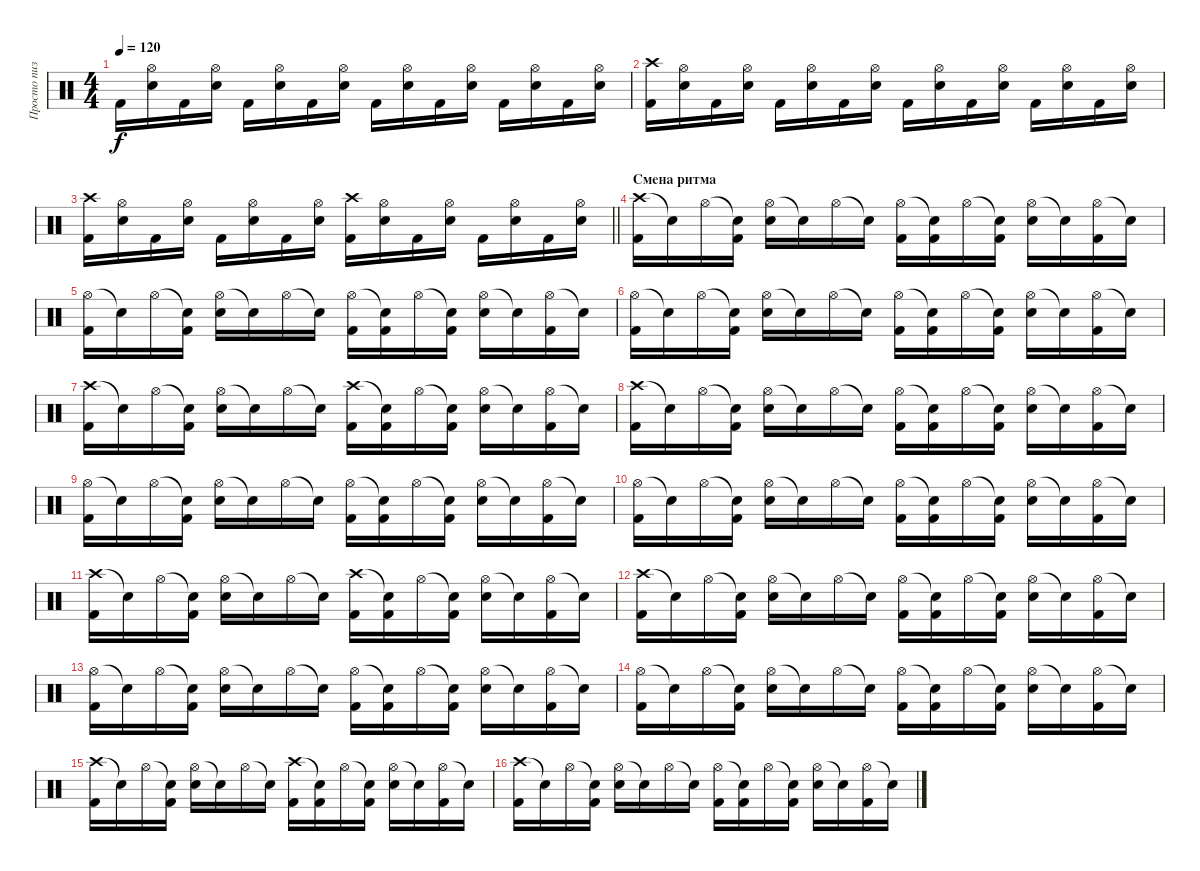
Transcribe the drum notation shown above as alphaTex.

\track ("Просто пиздец какой то" "Просто пиз") {instrument percussion}
\staff {score}
\articulation defaults
\ts (4 4)
\tempo 120
\clef neutral
\ks c "Kick (hit) 2".16{dy f}
("Hi-Hat (open)" "Snare (hit) 2").16 "Kick (hit) 2".16 ("Hi-Hat (open)" "Snare (hit) 2").16 "Kick (hit) 2".16 ("Hi-Hat (open)" "Snare (hit) 2").16 "Kick (hit) 2".16 ("Hi-Hat (open)" "Snare (hit) 2").16 "Kick (hit) 2".16 ("Hi-Hat (open)" "Snare (hit) 2").16 "Kick (hit) 2".16 ("Hi-Hat (open)" "Snare (hit) 2").16 "Kick (hit) 2".16 ("Hi-Hat (open)" "Snare (hit) 2").16 "Kick (hit) 2".16 ("Hi-Hat (open)" "Snare (hit) 2").16 |
("Crash high (hit)" "Kick (hit) 2").16 ("Hi-Hat (open)" "Snare (hit) 2").16 "Kick (hit) 2".16 ("Hi-Hat (open)" "Snare (hit) 2").16 "Kick (hit) 2".16 ("Hi-Hat (open)" "Snare (hit) 2").16 "Kick (hit) 2".16 ("Hi-Hat (open)" "Snare (hit) 2").16 "Kick (hit) 2".16 ("Hi-Hat (open)" "Snare (hit) 2").16 "Kick (hit) 2".16 ("Hi-Hat (open)" "Snare (hit) 2").16 "Kick (hit) 2".16 ("Hi-Hat (open)" "Snare (hit) 2").16 "Kick (hit) 2".16 ("Hi-Hat (open)" "Snare (hit) 2").16 |
\barLineRight lightlight
("Crash high (hit)" "Kick (hit) 2").16 ("Hi-Hat (open)" "Snare (hit) 2").16 "Kick (hit) 2".16 ("Hi-Hat (open)" "Snare (hit) 2").16 "Kick (hit) 2".16 ("Hi-Hat (open)" "Snare (hit) 2").16 "Kick (hit) 2".16 ("Hi-Hat (open)" "Snare (hit) 2").16 ("Crash high (hit)" "Kick (hit) 2").16 ("Hi-Hat (open)" "Snare (hit) 2").16 "Kick (hit) 2".16 ("Hi-Hat (open)" "Snare (hit) 2").16 "Kick (hit) 2".16 ("Hi-Hat (open)" "Snare (hit) 2").16 "Kick (hit) 2".16 ("Hi-Hat (open)" "Snare (hit) 2").16 |
\section ("" "Смена ритма")
("Crash high (hit)" "Kick (hit) 2").16 "Snare (hit)"{t}.16 "Hi-Hat (open)".16 ("Snare (hit)"{t} "Kick (hit) 2").16 ("Hi-Hat (open)" "Snare (hit) 2").16 "Snare (hit)"{t}.16 "Hi-Hat (open)".16 "Snare (hit)"{t}.16 ("Hi-Hat (open)" "Kick (hit) 2").16 ("Snare (hit)"{t} "Kick (hit) 2").16 "Hi-Hat (open)".16 ("Snare (hit)"{t} "Kick (hit) 2").16 ("Hi-Hat (open)" "Snare (hit) 2").16 "Snare (hit)"{t}.16 ("Hi-Hat (open)" "Kick (hit) 2").16 "Snare (hit)"{t}.16 |
("Hi-Hat (open)" "Kick (hit) 2").16 "Snare (hit)"{t}.16 "Hi-Hat (open)".16 ("Snare (hit)"{t} "Kick (hit) 2").16 ("Hi-Hat (open)" "Snare (hit) 2").16 "Snare (hit)"{t}.16 "Hi-Hat (open)".16 "Snare (hit)"{t}.16 ("Hi-Hat (open)" "Kick (hit) 2").16 ("Snare (hit)"{t} "Kick (hit) 2").16 "Hi-Hat (open)".16 ("Snare (hit)"{t} "Kick (hit) 2").16 ("Hi-Hat (open)" "Snare (hit) 2").16 "Snare (hit)"{t}.16 ("Hi-Hat (open)" "Kick (hit) 2").16 "Snare (hit)"{t}.16 |
("Hi-Hat (open)" "Kick (hit) 2").16 "Snare (hit)"{t}.16 "Hi-Hat (open)".16 ("Snare (hit)"{t} "Kick (hit) 2").16 ("Hi-Hat (open)" "Snare (hit) 2").16 "Snare (hit)"{t}.16 "Hi-Hat (open)".16 "Snare (hit)"{t}.16 ("Hi-Hat (open)" "Kick (hit) 2").16 ("Snare (hit)"{t} "Kick (hit) 2").16 "Hi-Hat (open)".16 ("Snare (hit)"{t} "Kick (hit) 2").16 ("Hi-Hat (open)" "Snare (hit) 2").16 "Snare (hit)"{t}.16 ("Hi-Hat (open)" "Kick (hit) 2").16 "Snare (hit)"{t}.16 |
("Crash high (hit)" "Kick (hit) 2").16 "Snare (hit)"{t}.16 "Hi-Hat (open)".16 ("Snare (hit)"{t} "Kick (hit) 2").16 ("Hi-Hat (open)" "Snare (hit) 2").16 "Snare (hit)"{t}.16 "Hi-Hat (open)".16 "Snare (hit)"{t}.16 ("Crash high (hit)" "Kick (hit) 2").16 ("Snare (hit)"{t} "Kick (hit) 2").16 "Hi-Hat (open)".16 ("Snare (hit)"{t} "Kick (hit) 2").16 ("Hi-Hat (open)" "Snare (hit) 2").16 "Snare (hit)"{t}.16 ("Hi-Hat (open)" "Kick (hit) 2").16 "Snare (hit)"{t}.16 |
("Crash high (hit)" "Kick (hit) 2").16 "Snare (hit)"{t}.16 "Hi-Hat (open)".16 ("Snare (hit)"{t} "Kick (hit) 2").16 ("Hi-Hat (open)" "Snare (hit) 2").16 "Snare (hit)"{t}.16 "Hi-Hat (open)".16 "Snare (hit)"{t}.16 ("Hi-Hat (open)" "Kick (hit) 2").16 ("Snare (hit)"{t} "Kick (hit) 2").16 "Hi-Hat (open)".16 ("Snare (hit)"{t} "Kick (hit) 2").16 ("Hi-Hat (open)" "Snare (hit) 2").16 "Snare (hit)"{t}.16 ("Hi-Hat (open)" "Kick (hit) 2").16 "Snare (hit)"{t}.16 |
("Hi-Hat (open)" "Kick (hit) 2").16 "Snare (hit)"{t}.16 "Hi-Hat (open)".16 ("Snare (hit)"{t} "Kick (hit) 2").16 ("Hi-Hat (open)" "Snare (hit) 2").16 "Snare (hit)"{t}.16 "Hi-Hat (open)".16 "Snare (hit)"{t}.16 ("Hi-Hat (open)" "Kick (hit) 2").16 ("Snare (hit)"{t} "Kick (hit) 2").16 "Hi-Hat (open)".16 ("Snare (hit)"{t} "Kick (hit) 2").16 ("Hi-Hat (open)" "Snare (hit) 2").16 "Snare (hit)"{t}.16 ("Hi-Hat (open)" "Kick (hit) 2").16 "Snare (hit)"{t}.16 |
("Hi-Hat (open)" "Kick (hit) 2").16 "Snare (hit)"{t}.16 "Hi-Hat (open)".16 ("Snare (hit)"{t} "Kick (hit) 2").16 ("Hi-Hat (open)" "Snare (hit) 2").16 "Snare (hit)"{t}.16 "Hi-Hat (open)".16 "Snare (hit)"{t}.16 ("Hi-Hat (open)" "Kick (hit) 2").16 ("Snare (hit)"{t} "Kick (hit) 2").16 "Hi-Hat (open)".16 ("Snare (hit)"{t} "Kick (hit) 2").16 ("Hi-Hat (open)" "Snare (hit) 2").16 "Snare (hit)"{t}.16 ("Hi-Hat (open)" "Kick (hit) 2").16 "Snare (hit)"{t}.16 |
("Crash high (hit)" "Kick (hit) 2").16 "Snare (hit)"{t}.16 "Hi-Hat (open)".16 ("Snare (hit)"{t} "Kick (hit) 2").16 ("Hi-Hat (open)" "Snare (hit) 2").16 "Snare (hit)"{t}.16 "Hi-Hat (open)".16 "Snare (hit)"{t}.16 ("Crash high (hit)" "Kick (hit) 2").16 ("Snare (hit)"{t} "Kick (hit) 2").16 "Hi-Hat (open)".16 ("Snare (hit)"{t} "Kick (hit) 2").16 ("Hi-Hat (open)" "Snare (hit) 2").16 "Snare (hit)"{t}.16 ("Hi-Hat (open)" "Kick (hit) 2").16 "Snare (hit)"{t}.16 |
("Crash high (hit)" "Kick (hit) 2").16 "Snare (hit)"{t}.16 "Hi-Hat (open)".16 ("Snare (hit)"{t} "Kick (hit) 2").16 ("Hi-Hat (open)" "Snare (hit) 2").16 "Snare (hit)"{t}.16 "Hi-Hat (open)".16 "Snare (hit)"{t}.16 ("Hi-Hat (open)" "Kick (hit) 2").16 ("Snare (hit)"{t} "Kick (hit) 2").16 "Hi-Hat (open)".16 ("Snare (hit)"{t} "Kick (hit) 2").16 ("Hi-Hat (open)" "Snare (hit) 2").16 "Snare (hit)"{t}.16 ("Hi-Hat (open)" "Kick (hit) 2").16 "Snare (hit)"{t}.16 |
("Hi-Hat (open)" "Kick (hit) 2").16 "Snare (hit)"{t}.16 "Hi-Hat (open)".16 ("Snare (hit)"{t} "Kick (hit) 2").16 ("Hi-Hat (open)" "Snare (hit) 2").16 "Snare (hit)"{t}.16 "Hi-Hat (open)".16 "Snare (hit)"{t}.16 ("Hi-Hat (open)" "Kick (hit) 2").16 ("Snare (hit)"{t} "Kick (hit) 2").16 "Hi-Hat (open)".16 ("Snare (hit)"{t} "Kick (hit) 2").16 ("Hi-Hat (open)" "Snare (hit) 2").16 "Snare (hit)"{t}.16 ("Hi-Hat (open)" "Kick (hit) 2").16 "Snare (hit)"{t}.16 |
("Hi-Hat (open)" "Kick (hit) 2").16 "Snare (hit)"{t}.16 "Hi-Hat (open)".16 ("Snare (hit)"{t} "Kick (hit) 2").16 ("Hi-Hat (open)" "Snare (hit) 2").16 "Snare (hit)"{t}.16 "Hi-Hat (open)".16 "Snare (hit)"{t}.16 ("Hi-Hat (open)" "Kick (hit) 2").16 ("Snare (hit)"{t} "Kick (hit) 2").16 "Hi-Hat (open)".16 ("Snare (hit)"{t} "Kick (hit) 2").16 ("Hi-Hat (open)" "Snare (hit) 2").16 "Snare (hit)"{t}.16 ("Hi-Hat (open)" "Kick (hit) 2").16 "Snare (hit)"{t}.16 |
("Crash high (hit)" "Kick (hit) 2").16 "Snare (hit)"{t}.16 "Hi-Hat (open)".16 ("Snare (hit)"{t} "Kick (hit) 2").16 ("Hi-Hat (open)" "Snare (hit) 2").16 "Snare (hit)"{t}.16 "Hi-Hat (open)".16 "Snare (hit)"{t}.16 ("Crash high (hit)" "Kick (hit) 2").16 ("Snare (hit)"{t} "Kick (hit) 2").16 "Hi-Hat (open)".16 ("Snare (hit)"{t} "Kick (hit) 2").16 ("Hi-Hat (open)" "Snare (hit) 2").16 "Snare (hit)"{t}.16 ("Hi-Hat (open)" "Kick (hit) 2").16 "Snare (hit)"{t}.16 |
("Crash high (hit)" "Kick (hit) 2").16 "Snare (hit)"{t}.16 "Hi-Hat (open)".16 ("Snare (hit)"{t} "Kick (hit) 2").16 ("Hi-Hat (open)" "Snare (hit) 2").16 "Snare (hit)"{t}.16 "Hi-Hat (open)".16 "Snare (hit)"{t}.16 ("Hi-Hat (open)" "Kick (hit) 2").16 ("Snare (hit)"{t} "Kick (hit) 2").16 "Hi-Hat (open)".16 ("Snare (hit)"{t} "Kick (hit) 2").16 ("Hi-Hat (open)" "Snare (hit) 2").16 "Snare (hit)"{t}.16 ("Hi-Hat (open)" "Kick (hit) 2").16 "Snare (hit)"{t}.16
